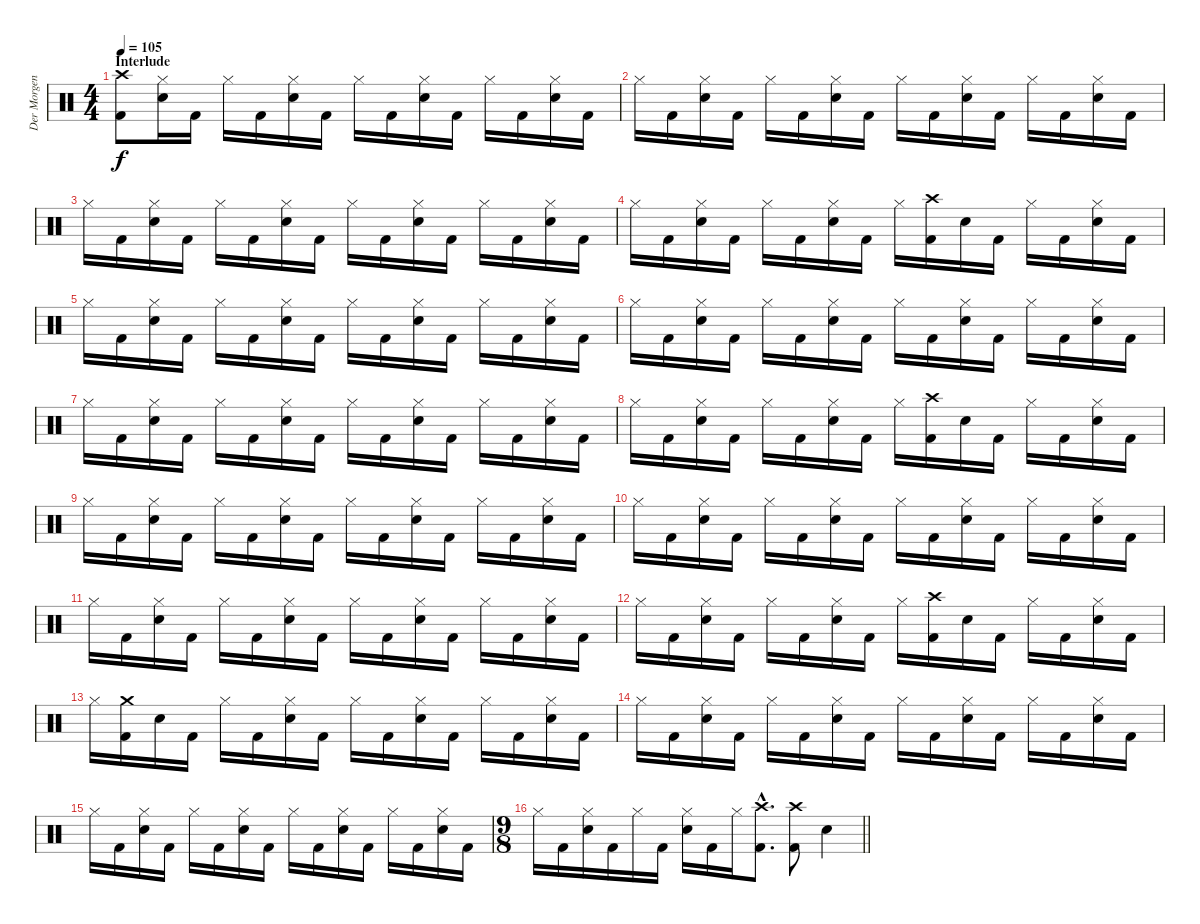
\track ("Der Morgenstern" "Der Morgen") {instrument percussion}
\staff {score}
\articulation defaults
\ts (4 4)
\section ("" "Interlude")
\tempo 105
\clef neutral
\ks c
("Crash high (hit)" "Kick (hit) 2").8{dy f} ("Hi-Hat (closed)" "Electric Snare (hit)").16 "Kick (hit) 2".16 "Hi-Hat (closed)".16 "Kick (hit) 2".16 ("Hi-Hat (closed)" "Electric Snare (hit)").16 "Kick (hit) 2".16 "Hi-Hat (closed)".16 "Kick (hit) 2".16 ("Hi-Hat (closed)" "Electric Snare (hit)").16 "Kick (hit) 2".16 "Hi-Hat (closed)".16 "Kick (hit) 2".16 ("Hi-Hat (closed)" "Electric Snare (hit)").16 "Kick (hit) 2".16 |
"Hi-Hat (closed)".16 "Kick (hit) 2".16 ("Hi-Hat (closed)" "Electric Snare (hit)").16 "Kick (hit) 2".16 "Hi-Hat (closed)".16 "Kick (hit) 2".16 ("Hi-Hat (closed)" "Electric Snare (hit)").16 "Kick (hit) 2".16 "Hi-Hat (closed)".16 "Kick (hit) 2".16 ("Hi-Hat (closed)" "Electric Snare (hit)").16 "Kick (hit) 2".16 "Hi-Hat (closed)".16 "Kick (hit) 2".16 ("Hi-Hat (closed)" "Electric Snare (hit)").16 "Kick (hit) 2".16 |
"Hi-Hat (closed)".16 "Kick (hit) 2".16 ("Hi-Hat (closed)" "Electric Snare (hit)").16 "Kick (hit) 2".16 "Hi-Hat (closed)".16 "Kick (hit) 2".16 ("Hi-Hat (closed)" "Electric Snare (hit)").16 "Kick (hit) 2".16 "Hi-Hat (closed)".16 "Kick (hit) 2".16 ("Hi-Hat (closed)" "Electric Snare (hit)").16 "Kick (hit) 2".16 "Hi-Hat (closed)".16 "Kick (hit) 2".16 ("Hi-Hat (closed)" "Electric Snare (hit)").16 "Kick (hit) 2".16 |
"Hi-Hat (closed)".16 "Kick (hit) 2".16 ("Hi-Hat (closed)" "Electric Snare (hit)").16 "Kick (hit) 2".16 "Hi-Hat (closed)".16 "Kick (hit) 2".16 ("Hi-Hat (closed)" "Electric Snare (hit)").16 "Kick (hit) 2".16 "Hi-Hat (closed)".16 ("Crash high (hit)" "Kick (hit) 2").16 "Electric Snare (hit)".16 "Kick (hit) 2".16 "Hi-Hat (closed)".16 "Kick (hit) 2".16 ("Hi-Hat (closed)" "Electric Snare (hit)").16 "Kick (hit) 2".16 |
"Hi-Hat (closed)".16 "Kick (hit) 2".16 ("Hi-Hat (closed)" "Electric Snare (hit)").16 "Kick (hit) 2".16 "Hi-Hat (closed)".16 "Kick (hit) 2".16 ("Hi-Hat (closed)" "Electric Snare (hit)").16 "Kick (hit) 2".16 "Hi-Hat (closed)".16 "Kick (hit) 2".16 ("Hi-Hat (closed)" "Electric Snare (hit)").16 "Kick (hit) 2".16 "Hi-Hat (closed)".16 "Kick (hit) 2".16 ("Hi-Hat (closed)" "Electric Snare (hit)").16 "Kick (hit) 2".16 |
"Hi-Hat (closed)".16 "Kick (hit) 2".16 ("Hi-Hat (closed)" "Electric Snare (hit)").16 "Kick (hit) 2".16 "Hi-Hat (closed)".16 "Kick (hit) 2".16 ("Hi-Hat (closed)" "Electric Snare (hit)").16 "Kick (hit) 2".16 "Hi-Hat (closed)".16 "Kick (hit) 2".16 ("Hi-Hat (closed)" "Electric Snare (hit)").16 "Kick (hit) 2".16 "Hi-Hat (closed)".16 "Kick (hit) 2".16 ("Hi-Hat (closed)" "Electric Snare (hit)").16 "Kick (hit) 2".16 |
"Hi-Hat (closed)".16 "Kick (hit) 2".16 ("Hi-Hat (closed)" "Electric Snare (hit)").16 "Kick (hit) 2".16 "Hi-Hat (closed)".16 "Kick (hit) 2".16 ("Hi-Hat (closed)" "Electric Snare (hit)").16 "Kick (hit) 2".16 "Hi-Hat (closed)".16 "Kick (hit) 2".16 ("Hi-Hat (closed)" "Electric Snare (hit)").16 "Kick (hit) 2".16 "Hi-Hat (closed)".16 "Kick (hit) 2".16 ("Hi-Hat (closed)" "Electric Snare (hit)").16 "Kick (hit) 2".16 |
"Hi-Hat (closed)".16 "Kick (hit) 2".16 ("Hi-Hat (closed)" "Electric Snare (hit)").16 "Kick (hit) 2".16 "Hi-Hat (closed)".16 "Kick (hit) 2".16 ("Hi-Hat (closed)" "Electric Snare (hit)").16 "Kick (hit) 2".16 "Hi-Hat (closed)".16 ("Crash high (hit)" "Kick (hit) 2").16 "Electric Snare (hit)".16 "Kick (hit) 2".16 "Hi-Hat (closed)".16 "Kick (hit) 2".16 ("Hi-Hat (closed)" "Electric Snare (hit)").16 "Kick (hit) 2".16 |
"Hi-Hat (closed)".16 "Kick (hit) 2".16 ("Hi-Hat (closed)" "Electric Snare (hit)").16 "Kick (hit) 2".16 "Hi-Hat (closed)".16 "Kick (hit) 2".16 ("Hi-Hat (closed)" "Electric Snare (hit)").16 "Kick (hit) 2".16 "Hi-Hat (closed)".16 "Kick (hit) 2".16 ("Hi-Hat (closed)" "Electric Snare (hit)").16 "Kick (hit) 2".16 "Hi-Hat (closed)".16 "Kick (hit) 2".16 ("Hi-Hat (closed)" "Electric Snare (hit)").16 "Kick (hit) 2".16 |
"Hi-Hat (closed)".16 "Kick (hit) 2".16 ("Hi-Hat (closed)" "Electric Snare (hit)").16 "Kick (hit) 2".16 "Hi-Hat (closed)".16 "Kick (hit) 2".16 ("Hi-Hat (closed)" "Electric Snare (hit)").16 "Kick (hit) 2".16 "Hi-Hat (closed)".16 "Kick (hit) 2".16 ("Hi-Hat (closed)" "Electric Snare (hit)").16 "Kick (hit) 2".16 "Hi-Hat (closed)".16 "Kick (hit) 2".16 ("Hi-Hat (closed)" "Electric Snare (hit)").16 "Kick (hit) 2".16 |
"Hi-Hat (closed)".16 "Kick (hit) 2".16 ("Hi-Hat (closed)" "Electric Snare (hit)").16 "Kick (hit) 2".16 "Hi-Hat (closed)".16 "Kick (hit) 2".16 ("Hi-Hat (closed)" "Electric Snare (hit)").16 "Kick (hit) 2".16 "Hi-Hat (closed)".16 "Kick (hit) 2".16 ("Hi-Hat (closed)" "Electric Snare (hit)").16 "Kick (hit) 2".16 "Hi-Hat (closed)".16 "Kick (hit) 2".16 ("Hi-Hat (closed)" "Electric Snare (hit)").16 "Kick (hit) 2".16 |
"Hi-Hat (closed)".16 "Kick (hit) 2".16 ("Hi-Hat (closed)" "Electric Snare (hit)").16 "Kick (hit) 2".16 "Hi-Hat (closed)".16 "Kick (hit) 2".16 ("Hi-Hat (closed)" "Electric Snare (hit)").16 "Kick (hit) 2".16 "Hi-Hat (closed)".16 ("Crash high (hit)" "Kick (hit) 2").16 "Electric Snare (hit)".16 "Kick (hit) 2".16 "Hi-Hat (closed)".16 "Kick (hit) 2".16 ("Hi-Hat (closed)" "Electric Snare (hit)").16 "Kick (hit) 2".16 |
"Hi-Hat (closed)".16 ("Crash medium (hit)" "Kick (hit) 2").16 "Electric Snare (hit)".16 "Kick (hit) 2".16 "Hi-Hat (closed)".16 "Kick (hit) 2".16 ("Hi-Hat (closed)" "Electric Snare (hit)").16 "Kick (hit) 2".16 "Hi-Hat (closed)".16 "Kick (hit) 2".16 ("Hi-Hat (closed)" "Electric Snare (hit)").16 "Kick (hit) 2".16 "Hi-Hat (closed)".16 "Kick (hit) 2".16 ("Hi-Hat (closed)" "Electric Snare (hit)").16 "Kick (hit) 2".16 |
"Hi-Hat (closed)".16 "Kick (hit) 2".16 ("Hi-Hat (closed)" "Electric Snare (hit)").16 "Kick (hit) 2".16 "Hi-Hat (closed)".16 "Kick (hit) 2".16 ("Hi-Hat (closed)" "Electric Snare (hit)").16 "Kick (hit) 2".16 "Hi-Hat (closed)".16 "Kick (hit) 2".16 ("Hi-Hat (closed)" "Electric Snare (hit)").16 "Kick (hit) 2".16 "Hi-Hat (closed)".16 "Kick (hit) 2".16 ("Hi-Hat (closed)" "Electric Snare (hit)").16 "Kick (hit) 2".16 |
"Hi-Hat (closed)".16 "Kick (hit) 2".16 ("Hi-Hat (closed)" "Electric Snare (hit)").16 "Kick (hit) 2".16 "Hi-Hat (closed)".16 "Kick (hit) 2".16 ("Hi-Hat (closed)" "Electric Snare (hit)").16 "Kick (hit) 2".16 "Hi-Hat (closed)".16 "Kick (hit) 2".16 ("Hi-Hat (closed)" "Electric Snare (hit)").16 "Kick (hit) 2".16 "Hi-Hat (closed)".16 "Kick (hit) 2".16 ("Hi-Hat (closed)" "Electric Snare (hit)").16 "Kick (hit) 2".16 |
\ts (9 8)
\barLineRight lightlight "Hi-Hat (closed)".16 "Kick (hit) 2".16
("Hi-Hat (closed)" "Electric Snare (hit)").16 "Kick (hit) 2".16 "Hi-Hat (closed)".16 "Kick (hit) 2".16 ("Hi-Hat (closed)" "Electric Snare (hit)").16 "Kick (hit) 2".16 "Hi-Hat (closed)".16 ("Crash high (hit)"{hac} "Kick (hit) 2"{hac}).8{d} ("Crash high (hit)" "Kick (hit) 2").8 "Electric Snare (hit)".4
